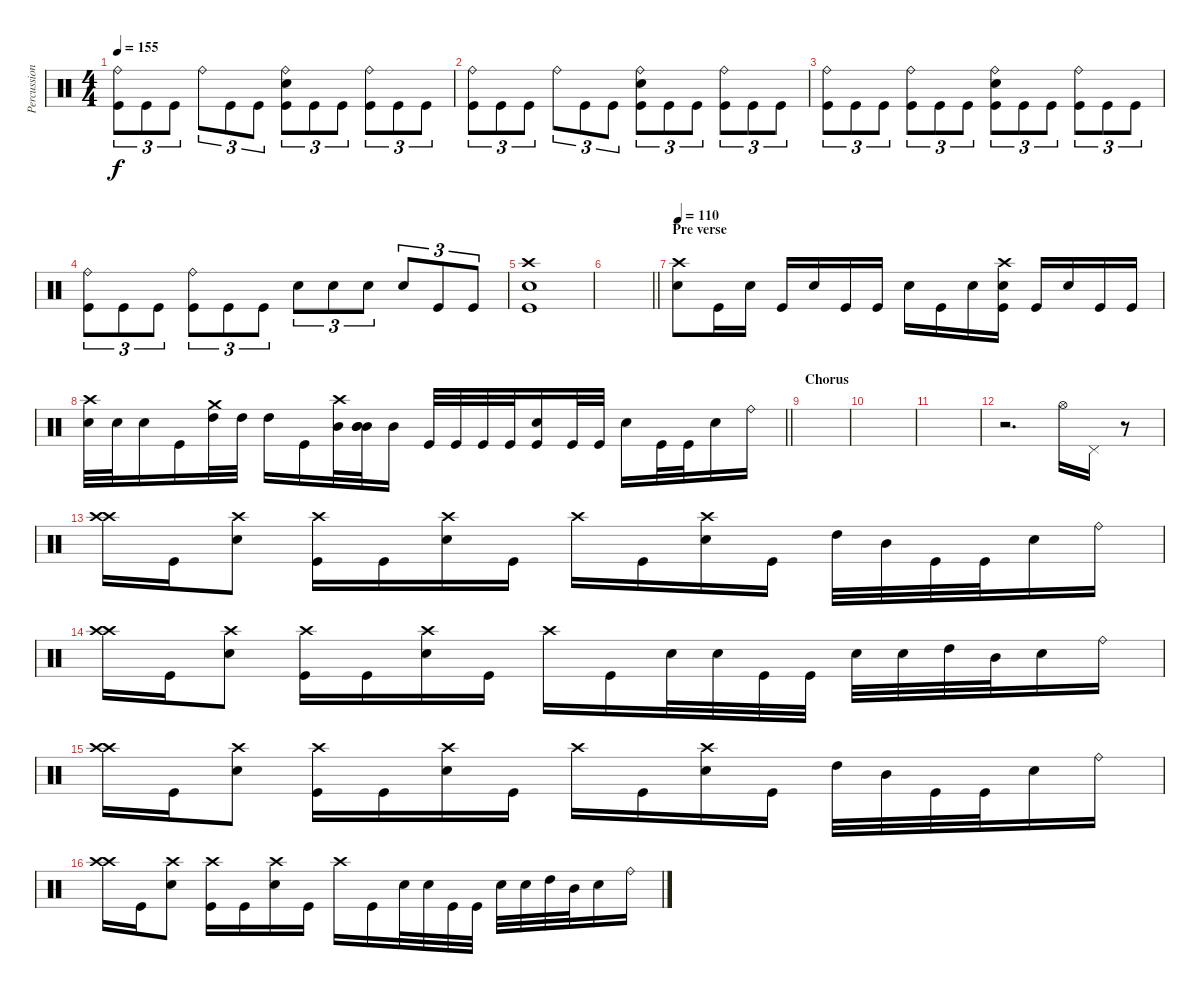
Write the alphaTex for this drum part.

\track ("Percussion" "Percussion") {instrument percussion}
\staff {score}
\articulation defaults
\ts (4 4)
\tempo 155
\clef neutral
\ks c
("Ride (bell)" "Kick (hit)").8{tu (3 2) dy f} "Kick (hit)".8{tu (3 2)} "Kick (hit)".8{tu (3 2)} "Ride (bell)".8{tu (3 2)} "Kick (hit)".8{tu (3 2)} "Kick (hit)".8{tu (3 2)} ("Kick (hit)" "Snare (hit) 2" "Ride (bell)").8{tu (3 2)} "Kick (hit)".8{tu (3 2)} "Kick (hit)".8{tu (3 2)} ("Kick (hit)" "Ride (bell)").8{tu (3 2)} "Kick (hit)".8{tu (3 2)} "Kick (hit)".8{tu (3 2)} |
("Ride (bell)" "Kick (hit)").8{tu (3 2)} "Kick (hit)".8{tu (3 2)} "Kick (hit)".8{tu (3 2)} "Ride (bell)".8{tu (3 2)} "Kick (hit)".8{tu (3 2)} "Kick (hit)".8{tu (3 2)} ("Kick (hit)" "Snare (hit) 2" "Ride (bell)").8{tu (3 2)} "Kick (hit)".8{tu (3 2)} "Kick (hit)".8{tu (3 2)} ("Kick (hit)" "Ride (bell)").8{tu (3 2)} "Kick (hit)".8{tu (3 2)} "Kick (hit)".8{tu (3 2)} |
("Ride (bell)" "Kick (hit)").8{tu (3 2)} "Kick (hit)".8{tu (3 2)} "Kick (hit)".8{tu (3 2)} ("Ride (bell)" "Kick (hit)").8{tu (3 2)} "Kick (hit)".8{tu (3 2)} "Kick (hit)".8{tu (3 2)} ("Kick (hit)" "Snare (hit) 2" "Ride (bell)").8{tu (3 2)} "Kick (hit)".8{tu (3 2)} "Kick (hit)".8{tu (3 2)} ("Kick (hit)" "Ride (bell)").8{tu (3 2)} "Kick (hit)".8{tu (3 2)} "Kick (hit)".8{tu (3 2)} |
("Ride (bell)" "Kick (hit)").8{tu (3 2)} "Kick (hit)".8{tu (3 2)} "Kick (hit)".8{tu (3 2)} ("Ride (bell)" "Kick (hit)").8{tu (3 2)} "Kick (hit)".8{tu (3 2)} "Kick (hit)".8{tu (3 2)} "Snare (hit) 2".8{tu (3 2)} "Snare (hit) 2".8{tu (3 2)} "Snare (hit) 2".8{tu (3 2)} "Snare (hit) 2".8{tu (3 2)} "Kick (hit)".8{tu (3 2)} "Kick (hit)".8{tu (3 2)} |
("Kick (hit)" "Snare (hit) 2" "Crash high (hit)").1 |
\barLineRight lightlight
|
\section ("" "Pre verse")
\tempo 110
("Snare (hit) 2" "Crash high (hit)").8 "Kick (hit)".16 "Snare (hit) 2".16 "Kick (hit)".16 "Snare (hit) 2".16 "Kick (hit)".16 "Kick (hit)".16 "Snare (hit) 2".16 "Kick (hit)".16 "Snare (hit) 2".16 ("Snare (hit) 2" "Kick (hit)" "Crash high (hit)").16 "Kick (hit)".16 "Snare (hit) 2".16 "Kick (hit)".16 "Kick (hit)".16 |
\barLineRight lightlight
("Snare (hit) 2" "Crash high (hit)").32 "Snare (hit) 2".32 "Snare (hit) 2".16 "Kick (hit)".16 ("High Tom (hit)" "Crash medium (hit)").32 "High Tom (hit)".32 "High Tom (hit)".16 "Kick (hit)".16 ("Crash high (hit)" "Mid Tom (hit)").32 ("Mid Tom (hit)" "Mid Tom (hit)" "Mid Tom (hit)").32 "Mid Tom (hit)".16 "Kick (hit)".32 "Kick (hit)".32 "Kick (hit)".32 "Kick (hit)".32 ("Kick (hit)" "Snare (hit) 2").16 "Kick (hit)".32 "Kick (hit)".32 "Snare (hit) 2".16 "Kick (hit)".32 "Kick (hit)".32 "Snare (hit) 2".16 "Ride (bell)".16 |
\section ("" "Chorus")
|
|
|
r.2{d} "Hi-Hat (open)".16 "Pedal Hi-Hat (hit)".16 r.8 |
("Crash high (hit)" "Crash high (hit)").16 "Kick (hit)".16 ("Snare (hit) 2" "Crash high (hit)").8 ("Kick (hit)" "Crash high (hit)").16 "Kick (hit)".16 ("Snare (hit) 2" "Crash high (hit)").16 "Kick (hit)".16 "Crash high (hit)".16 "Kick (hit)".16 ("Crash high (hit)" "Snare (hit) 2").16 "Kick (hit)".16 "High Tom (hit)".32 "Mid Tom (hit)".32 "Kick (hit)".32 "Kick (hit)".32 "Snare (hit) 2".16 "Ride (bell)".16 |
("Crash high (hit)" "Crash high (hit)").16 "Kick (hit)".16 ("Snare (hit) 2" "Crash high (hit)").8 ("Kick (hit)" "Crash high (hit)").16 "Kick (hit)".16 ("Snare (hit) 2" "Crash high (hit)").16 "Kick (hit)".16 "Crash high (hit)".16 "Kick (hit)".16 "Snare (hit) 2".32 "Snare (hit) 2".32 "Kick (hit)".32 "Kick (hit)".32 "Snare (hit) 2".32 "Snare (hit) 2".32 "High Tom (hit)".32 "Mid Tom (hit)".32 "Snare (hit) 2".16 "Ride (bell)".16 |
("Crash high (hit)" "Crash high (hit)").16 "Kick (hit)".16 ("Snare (hit) 2" "Crash high (hit)").8 ("Kick (hit)" "Crash high (hit)").16 "Kick (hit)".16 ("Snare (hit) 2" "Crash high (hit)").16 "Kick (hit)".16 "Crash high (hit)".16 "Kick (hit)".16 ("Crash high (hit)" "Snare (hit) 2").16 "Kick (hit)".16 "High Tom (hit)".32 "Mid Tom (hit)".32 "Kick (hit)".32 "Kick (hit)".32 "Snare (hit) 2".16 "Ride (bell)".16 |
("Crash high (hit)" "Crash high (hit)").16 "Kick (hit)".16 ("Snare (hit) 2" "Crash high (hit)").8 ("Kick (hit)" "Crash high (hit)").16 "Kick (hit)".16 ("Snare (hit) 2" "Crash high (hit)").16 "Kick (hit)".16 "Crash high (hit)".16 "Kick (hit)".16 "Snare (hit) 2".32 "Snare (hit) 2".32 "Kick (hit)".32 "Kick (hit)".32 "Snare (hit) 2".32 "Snare (hit) 2".32 "High Tom (hit)".32 "Mid Tom (hit)".32 "Snare (hit) 2".16 "Ride (bell)".16
